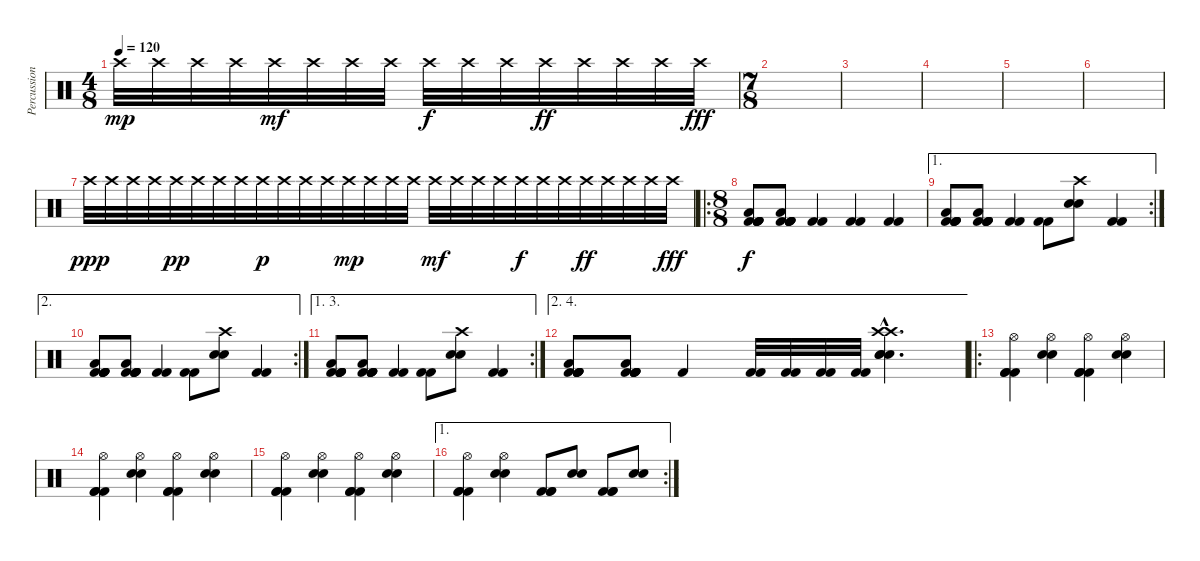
\track ("Percussions" "Percussion") {instrument percussion}
\staff {score}
\articulation defaults
\ts (4 8)
\tempo 120
\clef neutral
\ks c "Crash high (hit)".32{dy mp} "Crash high (hit)".32 "Crash high (hit)".32 "Crash high (hit)".32 "Crash high (hit)".32{dy mf} "Crash high (hit)".32 "Crash high (hit)".32 "Crash high (hit)".32 "Crash high (hit)".32{dy f} "Crash high (hit)".32 "Crash high (hit)".32 "Crash high (hit)".32{dy ff} "Crash high (hit)".32 "Crash high (hit)".32 "Crash high (hit)".32 "Crash high (hit)".32{dy fff}
|
\ts (7 8)
|
|
|
|
|
"Crash high (hit)".32{dy ppp} "Crash high (hit)".32 "Crash high (hit)".32 "Crash high (hit)".32 "Crash high (hit)".32{dy pp} "Crash high (hit)".32 "Crash high (hit)".32 "Crash high (hit)".32 "Crash high (hit)".32{dy p} "Crash high (hit)".32 "Crash high (hit)".32 "Crash high (hit)".32 "Crash high (hit)".32{dy mp} "Crash high (hit)".32 "Crash high (hit)".32 "Crash high (hit)".32 "Crash high (hit)".32{dy mf} "Crash high (hit)".32 "Crash high (hit)".32 "Crash high (hit)".32 "Crash high (hit)".32{dy f} "Crash high (hit)".32 "Crash high (hit)".32 "Crash high (hit)".32{dy ff} "Crash high (hit)".32 "Crash high (hit)".32 "Crash high (hit)".32 "Crash high (hit)".32{dy fff} |
\ro
\ts (8 8)
("Kick (hit) 2" "Kick (hit) 2" "Kick (hit) 2" "Low Floor Tom (hit)" "Kick (hit) 2" "Kick (hit) 2").8{dy f} ("Kick (hit) 2" "Kick (hit) 2" "Kick (hit) 2" "Low Floor Tom (hit)" "Kick (hit) 2" "Kick (hit) 2").8 ("Kick (hit) 2" "Kick (hit) 2").4 ("Kick (hit) 2" "Kick (hit) 2").4 ("Kick (hit) 2" "Kick (hit) 2").4 |
\ae 1
\rc 2
("Kick (hit) 2" "Kick (hit) 2" "Kick (hit) 2" "Low Floor Tom (hit)" "Kick (hit) 2" "Kick (hit) 2").8 ("Kick (hit) 2" "Kick (hit) 2" "Kick (hit) 2" "Low Floor Tom (hit)" "Kick (hit) 2" "Kick (hit) 2").8 ("Kick (hit) 2" "Kick (hit) 2").4 ("Kick (hit) 2" "Kick (hit) 2").8 ("Electric Snare (hit)" "Electric Snare (hit)" "Crash high (hit)").8 ("Kick (hit) 2" "Kick (hit) 2").4 |
\ae 2
\rc 2
("Kick (hit) 2" "Kick (hit) 2" "Kick (hit) 2" "Low Floor Tom (hit)" "Kick (hit) 2" "Kick (hit) 2").8 ("Kick (hit) 2" "Kick (hit) 2" "Kick (hit) 2" "Low Floor Tom (hit)" "Kick (hit) 2" "Kick (hit) 2").8 ("Kick (hit) 2" "Kick (hit) 2").4 ("Kick (hit) 2" "Kick (hit) 2").8 ("Electric Snare (hit)" "Electric Snare (hit)" "Crash high (hit)").8 ("Kick (hit) 2" "Kick (hit) 2").4 |
\ae (1 3)
\rc 2
("Kick (hit) 2" "Kick (hit) 2" "Kick (hit) 2" "Low Floor Tom (hit)" "Kick (hit) 2" "Kick (hit) 2").8 ("Kick (hit) 2" "Kick (hit) 2" "Kick (hit) 2" "Low Floor Tom (hit)" "Kick (hit) 2" "Kick (hit) 2").8 ("Kick (hit) 2" "Kick (hit) 2").4 ("Kick (hit) 2" "Kick (hit) 2").8 ("Electric Snare (hit)" "Electric Snare (hit)" "Crash high (hit)").8 ("Kick (hit) 2" "Kick (hit) 2").4 |
\ae (2 4)
("Kick (hit) 2" "Kick (hit) 2" "Kick (hit) 2" "Low Floor Tom (hit)" "Kick (hit) 2" "Kick (hit) 2").8 ("Kick (hit) 2" "Kick (hit) 2" "Kick (hit) 2" "Low Floor Tom (hit)" "Kick (hit) 2" "Kick (hit) 2").8 "Kick (hit) 2".4 ("Kick (hit) 2" "Kick (hit) 2").32 ("Kick (hit) 2" "Kick (hit) 2").32 ("Kick (hit) 2" "Kick (hit) 2").32 ("Kick (hit) 2" "Kick (hit) 2").32 ("Crash high (hit)"{hac} "Crash high (hit)"{hac} "Electric Snare (hit)"{hac} "Electric Snare (hit)"{hac} "Electric Snare (hit)"{hac}).4{d} |
\ro
("Kick (hit) 2" "Kick (hit) 2" "Kick (hit) 2" "Hi-Hat (open)").4 ("Electric Snare (hit)" "Electric Snare (hit)" "Hi-Hat (open)").4 ("Kick (hit) 2" "Kick (hit) 2" "Kick (hit) 2" "Hi-Hat (open)").4 ("Electric Snare (hit)" "Electric Snare (hit)" "Hi-Hat (open)").4 |
("Kick (hit) 2" "Kick (hit) 2" "Kick (hit) 2" "Hi-Hat (open)").4 ("Electric Snare (hit)" "Electric Snare (hit)" "Hi-Hat (open)").4 ("Kick (hit) 2" "Kick (hit) 2" "Kick (hit) 2" "Hi-Hat (open)").4 ("Electric Snare (hit)" "Electric Snare (hit)" "Hi-Hat (open)").4 |
("Kick (hit) 2" "Kick (hit) 2" "Kick (hit) 2" "Hi-Hat (open)").4 ("Electric Snare (hit)" "Electric Snare (hit)" "Hi-Hat (open)").4 ("Kick (hit) 2" "Kick (hit) 2" "Kick (hit) 2" "Hi-Hat (open)").4 ("Electric Snare (hit)" "Electric Snare (hit)" "Hi-Hat (open)").4 |
\ae 1
\rc 2
("Kick (hit) 2" "Kick (hit) 2" "Kick (hit) 2" "Hi-Hat (open)").4 ("Electric Snare (hit)" "Electric Snare (hit)" "Hi-Hat (open)").4 ("Kick (hit) 2" "Kick (hit) 2" "Kick (hit) 2").8 ("Electric Snare (hit)" "Electric Snare (hit)").8 ("Kick (hit) 2" "Kick (hit) 2" "Kick (hit) 2").8 ("Electric Snare (hit)" "Electric Snare (hit)").8
